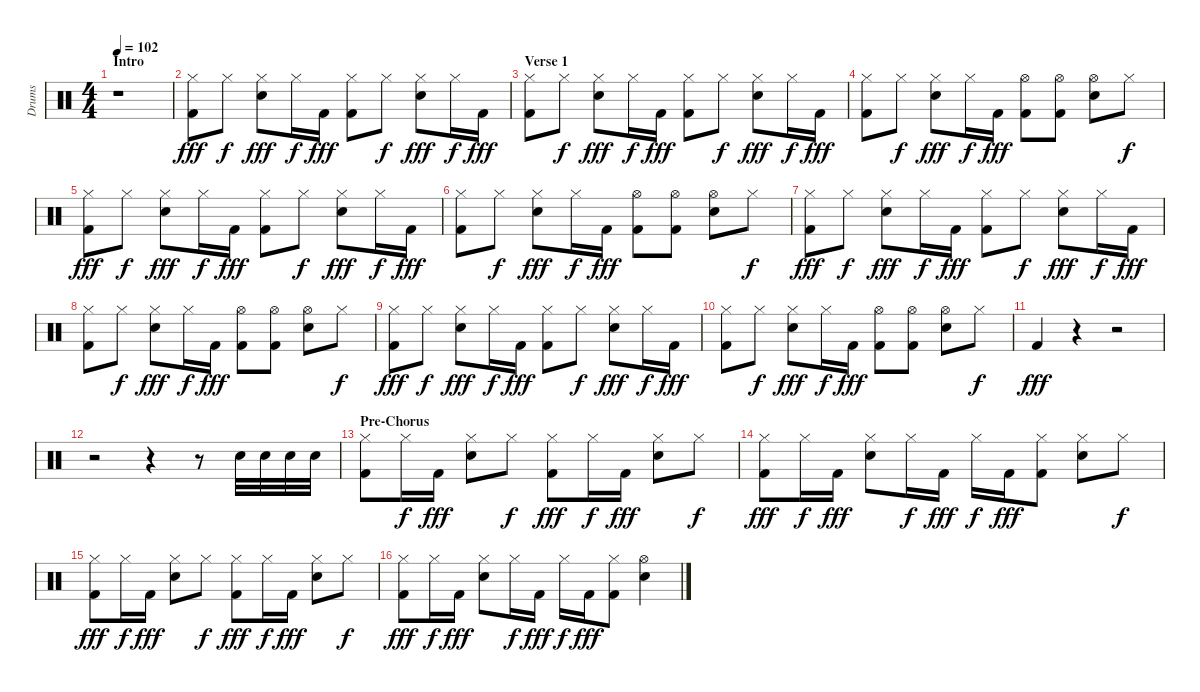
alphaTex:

\track ("Drums" "Drums") {instrument percussion}
\staff {score}
\articulation defaults
\ts (4 4)
\section ("" "Intro")
\tempo 102
\clef neutral
\ks c
r.1{dy fff} |
("Hi-Hat (closed)" "Kick (hit) 2").8 "Hi-Hat (closed)".8{dy f} ("Hi-Hat (closed)" "Electric Snare (hit)").8{dy fff} "Hi-Hat (closed)".16{dy f} "Kick (hit) 2".16{dy fff} ("Hi-Hat (closed)" "Kick (hit) 2").8 "Hi-Hat (closed)".8{dy f} ("Hi-Hat (closed)" "Electric Snare (hit)").8{dy fff} "Hi-Hat (closed)".16{dy f} "Kick (hit) 2".16{dy fff} |
\section ("" "Verse 1")
("Hi-Hat (closed)" "Kick (hit) 2").8 "Hi-Hat (closed)".8{dy f} ("Hi-Hat (closed)" "Electric Snare (hit)").8{dy fff} "Hi-Hat (closed)".16{dy f} "Kick (hit) 2".16{dy fff} ("Hi-Hat (closed)" "Kick (hit) 2").8 "Hi-Hat (closed)".8{dy f} ("Hi-Hat (closed)" "Electric Snare (hit)").8{dy fff} "Hi-Hat (closed)".16{dy f} "Kick (hit) 2".16{dy fff} |
("Hi-Hat (closed)" "Kick (hit) 2").8 "Hi-Hat (closed)".8{dy f} ("Hi-Hat (closed)" "Electric Snare (hit)").8{dy fff} "Hi-Hat (closed)".16{dy f} "Kick (hit) 2".16{dy fff} ("Hi-Hat (open)" "Kick (hit) 2").8 ("Hi-Hat (open)" "Kick (hit) 2").8 ("Hi-Hat (open)" "Electric Snare (hit)").8 "Hi-Hat (closed)".8{dy f} |
("Hi-Hat (closed)" "Kick (hit) 2").8{dy fff} "Hi-Hat (closed)".8{dy f} ("Hi-Hat (closed)" "Electric Snare (hit)").8{dy fff} "Hi-Hat (closed)".16{dy f} "Kick (hit) 2".16{dy fff} ("Hi-Hat (closed)" "Kick (hit) 2").8 "Hi-Hat (closed)".8{dy f} ("Hi-Hat (closed)" "Electric Snare (hit)").8{dy fff} "Hi-Hat (closed)".16{dy f} "Kick (hit) 2".16{dy fff} |
("Hi-Hat (closed)" "Kick (hit) 2").8 "Hi-Hat (closed)".8{dy f} ("Hi-Hat (closed)" "Electric Snare (hit)").8{dy fff} "Hi-Hat (closed)".16{dy f} "Kick (hit) 2".16{dy fff} ("Hi-Hat (open)" "Kick (hit) 2").8 ("Hi-Hat (open)" "Kick (hit) 2").8 ("Hi-Hat (open)" "Electric Snare (hit)").8 "Hi-Hat (closed)".8{dy f} |
("Hi-Hat (closed)" "Kick (hit) 2").8{dy fff} "Hi-Hat (closed)".8{dy f} ("Hi-Hat (closed)" "Electric Snare (hit)").8{dy fff} "Hi-Hat (closed)".16{dy f} "Kick (hit) 2".16{dy fff} ("Hi-Hat (closed)" "Kick (hit) 2").8 "Hi-Hat (closed)".8{dy f} ("Hi-Hat (closed)" "Electric Snare (hit)").8{dy fff} "Hi-Hat (closed)".16{dy f} "Kick (hit) 2".16{dy fff} |
("Hi-Hat (closed)" "Kick (hit) 2").8 "Hi-Hat (closed)".8{dy f} ("Hi-Hat (closed)" "Electric Snare (hit)").8{dy fff} "Hi-Hat (closed)".16{dy f} "Kick (hit) 2".16{dy fff} ("Hi-Hat (open)" "Kick (hit) 2").8 ("Hi-Hat (open)" "Kick (hit) 2").8 ("Hi-Hat (open)" "Electric Snare (hit)").8 "Hi-Hat (closed)".8{dy f} |
("Hi-Hat (closed)" "Kick (hit) 2").8{dy fff} "Hi-Hat (closed)".8{dy f} ("Hi-Hat (closed)" "Electric Snare (hit)").8{dy fff} "Hi-Hat (closed)".16{dy f} "Kick (hit) 2".16{dy fff} ("Hi-Hat (closed)" "Kick (hit) 2").8 "Hi-Hat (closed)".8{dy f} ("Hi-Hat (closed)" "Electric Snare (hit)").8{dy fff} "Hi-Hat (closed)".16{dy f} "Kick (hit) 2".16{dy fff} |
("Hi-Hat (closed)" "Kick (hit) 2").8 "Hi-Hat (closed)".8{dy f} ("Hi-Hat (closed)" "Electric Snare (hit)").8{dy fff} "Hi-Hat (closed)".16{dy f} "Kick (hit) 2".16{dy fff} ("Hi-Hat (open)" "Kick (hit) 2").8 ("Hi-Hat (open)" "Kick (hit) 2").8 ("Hi-Hat (open)" "Electric Snare (hit)").8 "Hi-Hat (closed)".8{dy f} |
"Kick (hit) 2".4{dy fff} r.4 r.2 |
r.2 r.4 r.8 "Electric Snare (hit)".32 "Electric Snare (hit)".32 "Electric Snare (hit)".32 "Electric Snare (hit)".32 |
\section ("" "Pre-Chorus")
("Hi-Hat (closed)" "Kick (hit) 2").8 "Hi-Hat (closed)".16{dy f} "Kick (hit) 2".16{dy fff} ("Hi-Hat (closed)" "Electric Snare (hit)").8 "Hi-Hat (closed)".8{dy f} ("Hi-Hat (closed)" "Kick (hit) 2").8{dy fff} "Hi-Hat (closed)".16{dy f} "Kick (hit) 2".16{dy fff} ("Hi-Hat (closed)" "Electric Snare (hit)").8 "Hi-Hat (closed)".8{dy f} |
("Hi-Hat (closed)" "Kick (hit) 2").8{dy fff} "Hi-Hat (closed)".16{dy f} "Kick (hit) 2".16{dy fff} ("Hi-Hat (closed)" "Electric Snare (hit)").8 "Hi-Hat (closed)".16{dy f} "Kick (hit) 2".16{dy fff} "Hi-Hat (closed)".16{dy f} "Kick (hit) 2".16{dy fff} ("Hi-Hat (closed)" "Kick (hit) 2").8 ("Hi-Hat (closed)" "Electric Snare (hit)").8 "Hi-Hat (closed)".8{dy f} |
("Hi-Hat (closed)" "Kick (hit) 2").8{dy fff} "Hi-Hat (closed)".16{dy f} "Kick (hit) 2".16{dy fff} ("Hi-Hat (closed)" "Electric Snare (hit)").8 "Hi-Hat (closed)".8{dy f} ("Hi-Hat (closed)" "Kick (hit) 2").8{dy fff} "Hi-Hat (closed)".16{dy f} "Kick (hit) 2".16{dy fff} ("Hi-Hat (closed)" "Electric Snare (hit)").8 "Hi-Hat (closed)".8{dy f} |
("Hi-Hat (closed)" "Kick (hit) 2").8{dy fff} "Hi-Hat (closed)".16{dy f} "Kick (hit) 2".16{dy fff} ("Hi-Hat (closed)" "Electric Snare (hit)").8 "Hi-Hat (closed)".16{dy f} "Kick (hit) 2".16{dy fff} "Hi-Hat (closed)".16{dy f} "Kick (hit) 2".16{dy fff} ("Hi-Hat (closed)" "Kick (hit) 2").8 ("Hi-Hat (open)" "Electric Snare (hit)").4
